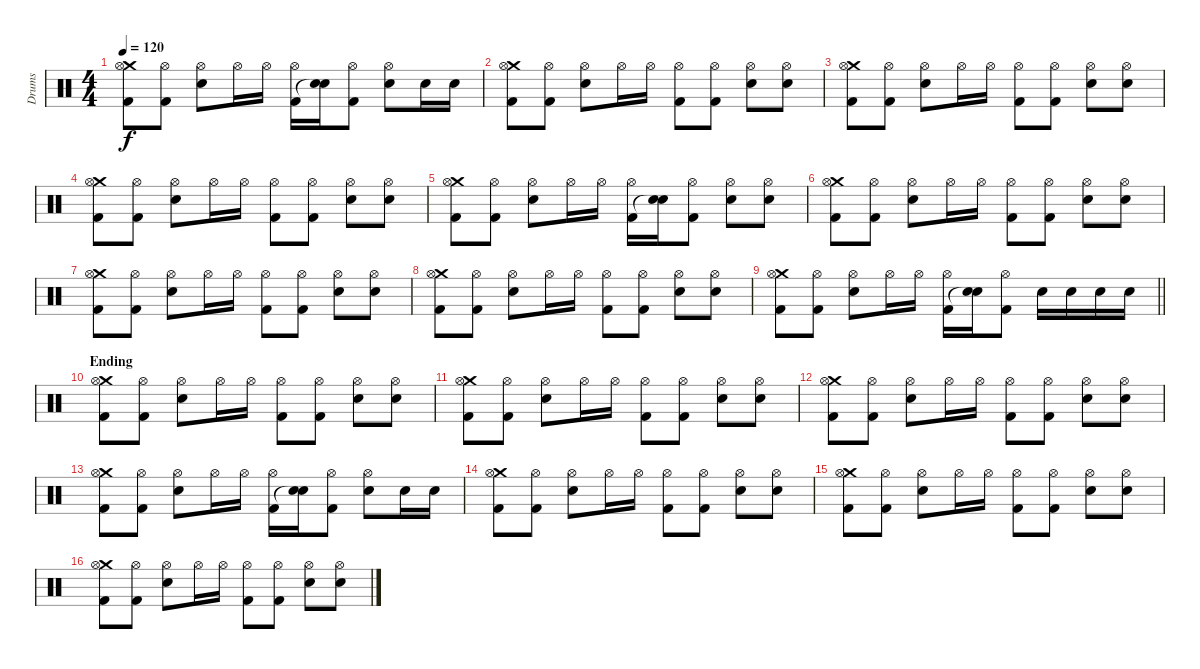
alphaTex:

\track ("Drums" "Drums") {instrument percussion}
\staff {score}
\articulation defaults
\ts (4 4)
\tempo 120
\clef neutral
\ks c
("Crash medium (hit)" "Hi-Hat (open)" "Kick (hit) 2").8{dy f} ("Hi-Hat (open)" "Kick (hit) 2").8 ("Hi-Hat (open)" "Electric Snare (hit)").8 "Hi-Hat (open)".16 "Hi-Hat (open)".16 ("Hi-Hat (open)" "Kick (hit) 2").16 ("Electric Snare (hit)" "Snare (hit)"{t}).16 ("Hi-Hat (open)" "Kick (hit) 2").8 ("Hi-Hat (open)" "Electric Snare (hit)").8 "Electric Snare (hit)".16 "Electric Snare (hit)".16 |
("Crash medium (hit)" "Hi-Hat (open)" "Kick (hit) 2").8 ("Hi-Hat (open)" "Kick (hit) 2").8 ("Hi-Hat (open)" "Electric Snare (hit)").8 "Hi-Hat (open)".16 "Hi-Hat (open)".16 ("Hi-Hat (open)" "Kick (hit) 2").8 ("Hi-Hat (open)" "Kick (hit) 2").8 ("Hi-Hat (open)" "Electric Snare (hit)").8 ("Hi-Hat (open)" "Electric Snare (hit)").8 |
("Crash medium (hit)" "Hi-Hat (open)" "Kick (hit) 2").8 ("Hi-Hat (open)" "Kick (hit) 2").8 ("Hi-Hat (open)" "Electric Snare (hit)").8 "Hi-Hat (open)".16 "Hi-Hat (open)".16 ("Hi-Hat (open)" "Kick (hit) 2").8 ("Hi-Hat (open)" "Kick (hit) 2").8 ("Hi-Hat (open)" "Electric Snare (hit)").8 ("Hi-Hat (open)" "Electric Snare (hit)").8 |
("Crash medium (hit)" "Hi-Hat (open)" "Kick (hit) 2").8 ("Hi-Hat (open)" "Kick (hit) 2").8 ("Hi-Hat (open)" "Electric Snare (hit)").8 "Hi-Hat (open)".16 "Hi-Hat (open)".16 ("Hi-Hat (open)" "Kick (hit) 2").8 ("Hi-Hat (open)" "Kick (hit) 2").8 ("Hi-Hat (open)" "Electric Snare (hit)").8 ("Hi-Hat (open)" "Electric Snare (hit)").8 |
("Crash medium (hit)" "Hi-Hat (open)" "Kick (hit) 2").8 ("Hi-Hat (open)" "Kick (hit) 2").8 ("Hi-Hat (open)" "Electric Snare (hit)").8 "Hi-Hat (open)".16 "Hi-Hat (open)".16 ("Hi-Hat (open)" "Kick (hit) 2").16 ("Electric Snare (hit)" "Snare (hit)"{t}).16 ("Hi-Hat (open)" "Kick (hit) 2").8 ("Hi-Hat (open)" "Electric Snare (hit)").8 ("Hi-Hat (open)" "Electric Snare (hit)").8 |
("Crash medium (hit)" "Hi-Hat (open)" "Kick (hit) 2").8 ("Hi-Hat (open)" "Kick (hit) 2").8 ("Hi-Hat (open)" "Electric Snare (hit)").8 "Hi-Hat (open)".16 "Hi-Hat (open)".16 ("Hi-Hat (open)" "Kick (hit) 2").8 ("Hi-Hat (open)" "Kick (hit) 2").8 ("Hi-Hat (open)" "Electric Snare (hit)").8 ("Hi-Hat (open)" "Electric Snare (hit)").8 |
("Crash medium (hit)" "Hi-Hat (open)" "Kick (hit) 2").8 ("Hi-Hat (open)" "Kick (hit) 2").8 ("Hi-Hat (open)" "Electric Snare (hit)").8 "Hi-Hat (open)".16 "Hi-Hat (open)".16 ("Hi-Hat (open)" "Kick (hit) 2").8 ("Hi-Hat (open)" "Kick (hit) 2").8 ("Hi-Hat (open)" "Electric Snare (hit)").8 ("Hi-Hat (open)" "Electric Snare (hit)").8 |
("Crash medium (hit)" "Hi-Hat (open)" "Kick (hit) 2").8 ("Hi-Hat (open)" "Kick (hit) 2").8 ("Hi-Hat (open)" "Electric Snare (hit)").8 "Hi-Hat (open)".16 "Hi-Hat (open)".16 ("Hi-Hat (open)" "Kick (hit) 2").8 ("Hi-Hat (open)" "Kick (hit) 2").8 ("Hi-Hat (open)" "Electric Snare (hit)").8 ("Hi-Hat (open)" "Electric Snare (hit)").8 |
\barLineRight lightlight
("Crash medium (hit)" "Hi-Hat (open)" "Kick (hit) 2").8 ("Hi-Hat (open)" "Kick (hit) 2").8 ("Hi-Hat (open)" "Electric Snare (hit)").8 "Hi-Hat (open)".16 "Hi-Hat (open)".16 ("Hi-Hat (open)" "Kick (hit) 2").16 ("Electric Snare (hit)" "Snare (hit)"{t}).16 ("Hi-Hat (open)" "Kick (hit) 2").8 "Electric Snare (hit)".16 "Electric Snare (hit)".16 "Electric Snare (hit)".16 "Electric Snare (hit)".16 |
\section ("" "Ending")
("Crash medium (hit)" "Hi-Hat (open)" "Kick (hit) 2").8 ("Hi-Hat (open)" "Kick (hit) 2").8 ("Hi-Hat (open)" "Electric Snare (hit)").8 "Hi-Hat (open)".16 "Hi-Hat (open)".16 ("Hi-Hat (open)" "Kick (hit) 2").8 ("Hi-Hat (open)" "Kick (hit) 2").8 ("Hi-Hat (open)" "Electric Snare (hit)").8 ("Hi-Hat (open)" "Electric Snare (hit)").8 |
("Crash medium (hit)" "Hi-Hat (open)" "Kick (hit) 2").8 ("Hi-Hat (open)" "Kick (hit) 2").8 ("Hi-Hat (open)" "Electric Snare (hit)").8 "Hi-Hat (open)".16 "Hi-Hat (open)".16 ("Hi-Hat (open)" "Kick (hit) 2").8 ("Hi-Hat (open)" "Kick (hit) 2").8 ("Hi-Hat (open)" "Electric Snare (hit)").8 ("Hi-Hat (open)" "Electric Snare (hit)").8 |
("Crash medium (hit)" "Hi-Hat (open)" "Kick (hit) 2").8 ("Hi-Hat (open)" "Kick (hit) 2").8 ("Hi-Hat (open)" "Electric Snare (hit)").8 "Hi-Hat (open)".16 "Hi-Hat (open)".16 ("Hi-Hat (open)" "Kick (hit) 2").8 ("Hi-Hat (open)" "Kick (hit) 2").8 ("Hi-Hat (open)" "Electric Snare (hit)").8 ("Hi-Hat (open)" "Electric Snare (hit)").8 |
("Crash medium (hit)" "Hi-Hat (open)" "Kick (hit) 2").8 ("Hi-Hat (open)" "Kick (hit) 2").8 ("Hi-Hat (open)" "Electric Snare (hit)").8 "Hi-Hat (open)".16 "Hi-Hat (open)".16 ("Hi-Hat (open)" "Kick (hit) 2").16 ("Electric Snare (hit)" "Snare (hit)"{t}).16 ("Hi-Hat (open)" "Kick (hit) 2").8 ("Hi-Hat (open)" "Electric Snare (hit)").8 "Electric Snare (hit)".16 "Electric Snare (hit)".16 |
("Crash medium (hit)" "Hi-Hat (open)" "Kick (hit) 2").8 ("Hi-Hat (open)" "Kick (hit) 2").8 ("Hi-Hat (open)" "Electric Snare (hit)").8 "Hi-Hat (open)".16 "Hi-Hat (open)".16 ("Hi-Hat (open)" "Kick (hit) 2").8 ("Hi-Hat (open)" "Kick (hit) 2").8 ("Hi-Hat (open)" "Electric Snare (hit)").8 ("Hi-Hat (open)" "Electric Snare (hit)").8 |
("Crash medium (hit)" "Hi-Hat (open)" "Kick (hit) 2").8 ("Hi-Hat (open)" "Kick (hit) 2").8 ("Hi-Hat (open)" "Electric Snare (hit)").8 "Hi-Hat (open)".16 "Hi-Hat (open)".16 ("Hi-Hat (open)" "Kick (hit) 2").8 ("Hi-Hat (open)" "Kick (hit) 2").8 ("Hi-Hat (open)" "Electric Snare (hit)").8 ("Hi-Hat (open)" "Electric Snare (hit)").8 |
("Crash medium (hit)" "Hi-Hat (open)" "Kick (hit) 2").8 ("Hi-Hat (open)" "Kick (hit) 2").8 ("Hi-Hat (open)" "Electric Snare (hit)").8 "Hi-Hat (open)".16 "Hi-Hat (open)".16 ("Hi-Hat (open)" "Kick (hit) 2").8 ("Hi-Hat (open)" "Kick (hit) 2").8 ("Hi-Hat (open)" "Electric Snare (hit)").8 ("Hi-Hat (open)" "Electric Snare (hit)").8
